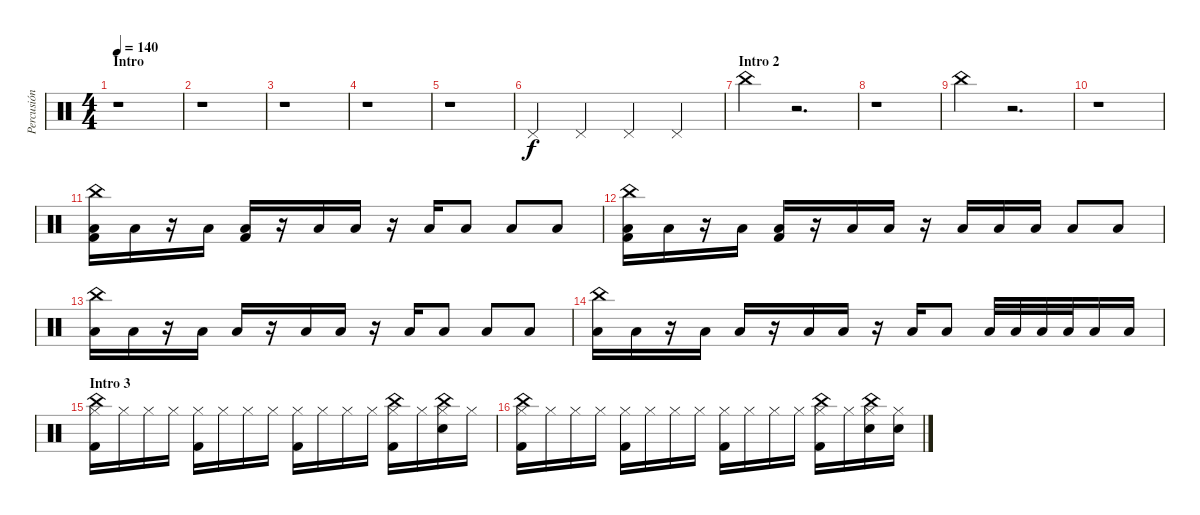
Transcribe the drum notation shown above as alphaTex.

\track ("Percusión" "Percusión") {instrument percussion}
\staff {score}
\articulation defaults
\ts (4 4)
\section ("" "Intro")
\tempo 140
\clef neutral
\ks c
r.1{dy f} |
r.1 |
r.1 |
r.1 |
r.1 |
"Pedal Hi-Hat (hit)".4 "Pedal Hi-Hat (hit)".4 "Pedal Hi-Hat (hit)".4 "Pedal Hi-Hat (hit)".4 |
\section ("" "Intro 2")
"China (hit)".4 r.2{d} |
r.1 |
"China (hit)".4 r.2{d} |
r.1 |
("Kick (hit) 2" "Low Tom (hit)" "China (hit)").16 "Low Tom (hit)".16 r.16 "Low Tom (hit)".16 ("Kick (hit) 2" "Low Tom (hit)").16 r.16 "Low Tom (hit)".16 "Low Tom (hit)".16 r.16 "Low Tom (hit)".16 "Low Tom (hit)".8 "Low Tom (hit)".8 "Low Tom (hit)".8 |
("Kick (hit) 2" "Low Tom (hit)" "China (hit)").16 "Low Tom (hit)".16 r.16 "Low Tom (hit)".16 ("Kick (hit) 2" "Low Tom (hit)").16 r.16 "Low Tom (hit)".16 "Low Tom (hit)".16 r.16 "Low Tom (hit)".16 "Low Tom (hit)".16 "Low Tom (hit)".16 "Low Tom (hit)".8 "Low Tom (hit)".8 |
("Low Tom (hit)" "China (hit)").16 "Low Tom (hit)".16 r.16 "Low Tom (hit)".16 "Low Tom (hit)".16 r.16 "Low Tom (hit)".16 "Low Tom (hit)".16 r.16 "Low Tom (hit)".16 "Low Tom (hit)".8 "Low Tom (hit)".8 "Low Tom (hit)".8 |
("Low Tom (hit)" "China (hit)").16 "Low Tom (hit)".16 r.16 "Low Tom (hit)".16 "Low Tom (hit)".16 r.16 "Low Tom (hit)".16 "Low Tom (hit)".16 r.16 "Low Tom (hit)".16 "Low Tom (hit)".8 "Low Tom (hit)".32 "Low Tom (hit)".32 "Low Tom (hit)".32 "Low Tom (hit)".32 "Low Tom (hit)".16 "Low Tom (hit)".16 |
\section ("" "Intro 3")
("Kick (hit) 2" "China (hit)" "Hi-Hat (closed)").16 "Hi-Hat (closed)".16 "Hi-Hat (closed)".16 "Hi-Hat (closed)".16 ("Kick (hit) 2" "Hi-Hat (closed)").16 "Hi-Hat (closed)".16 "Hi-Hat (closed)".16 "Hi-Hat (closed)".16 ("Kick (hit) 2" "Hi-Hat (closed)").16 "Hi-Hat (closed)".16 "Hi-Hat (closed)".16 "Hi-Hat (closed)".16 ("Kick (hit) 2" "China (hit)" "Hi-Hat (closed)").16 "Hi-Hat (closed)".16 ("Electric Snare (hit)" "China (hit)" "Hi-Hat (closed)").16 "Hi-Hat (closed)".16 |
("Kick (hit) 2" "China (hit)" "Hi-Hat (closed)").16 "Hi-Hat (closed)".16 "Hi-Hat (closed)".16 "Hi-Hat (closed)".16 ("Kick (hit) 2" "Hi-Hat (closed)").16 "Hi-Hat (closed)".16 "Hi-Hat (closed)".16 "Hi-Hat (closed)".16 ("Kick (hit) 2" "Hi-Hat (closed)").16 "Hi-Hat (closed)".16 "Hi-Hat (closed)".16 "Hi-Hat (closed)".16 ("Kick (hit) 2" "China (hit)" "Hi-Hat (closed)").16 "Hi-Hat (closed)".16 ("Electric Snare (hit)" "China (hit)" "Hi-Hat (closed)").16 ("Electric Snare (hit)" "Hi-Hat (closed)").16
